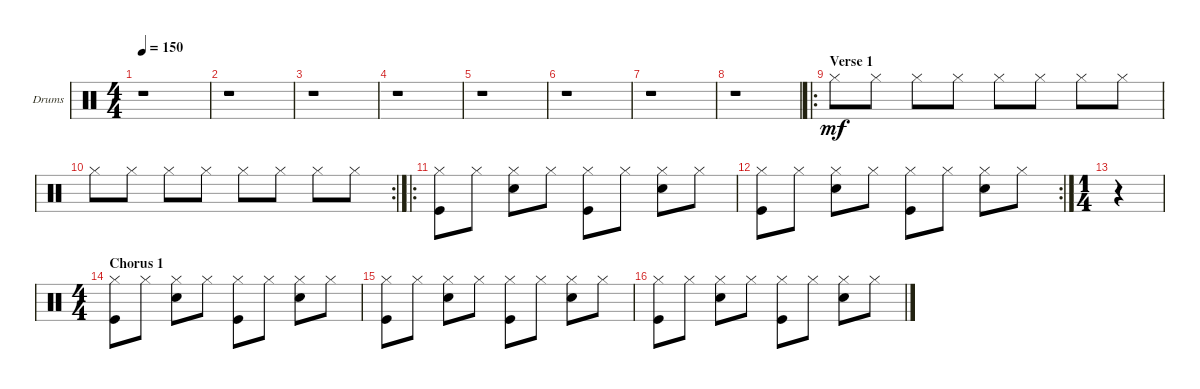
\defaultSystemsLayout 4
\bracketExtendMode groupsimilarinstruments
\firstSystemTrackNameOrientation horizontal
\otherSystemsTrackNameOrientation horizontal
\chordDiagramsInScore
\track ("Drumkit" "Drums") {instrument percussion}
\staff {score}
\articulation defaults
\ts (4 4)
\tempo 150
\clef neutral
\scale
0.474178
\ks c
r.1{dy mf} |
\scale
0.262911 r.1 |
\scale
0.262911 r.1 |
\scale
0.333333 r.1 |
\scale
0.333333 r.1 |
\scale
0.333333 r.1 |
\scale
0.311111 r.1 |
\scale
0.311111 r.1 |
\ro
\section ("" "Verse 1")
\scale
0.377778 "Hi-Hat (closed)".8 "Hi-Hat (closed)".8 "Hi-Hat (closed)".8 "Hi-Hat (closed)".8 "Hi-Hat (closed)".8 "Hi-Hat (closed)".8 "Hi-Hat (closed)".8 "Hi-Hat (closed)".8 |
\rc 2
\scale
0.322917 "Hi-Hat (closed)".8 "Hi-Hat (closed)".8 "Hi-Hat (closed)".8 "Hi-Hat (closed)".8 "Hi-Hat (closed)".8 "Hi-Hat (closed)".8 "Hi-Hat (closed)".8 "Hi-Hat (closed)".8 |
\ro
\scale
0.354167 ("Kick (hit)" "Hi-Hat (closed)").8 "Hi-Hat (closed)".8 ("Snare (hit) 2" "Hi-Hat (closed)").8 "Hi-Hat (closed)".8 ("Kick (hit)" "Hi-Hat (closed)").8 "Hi-Hat (closed)".8 ("Snare (hit) 2" "Hi-Hat (closed)").8 "Hi-Hat (closed)".8 |
\rc 2
\scale
0.322917 ("Kick (hit)" "Hi-Hat (closed)").8 "Hi-Hat (closed)".8 ("Snare (hit) 2" "Hi-Hat (closed)").8 "Hi-Hat (closed)".8 ("Kick (hit)" "Hi-Hat (closed)").8 "Hi-Hat (closed)".8 ("Snare (hit) 2" "Hi-Hat (closed)").8 "Hi-Hat (closed)".8 |
\ts (1 4)
r.4 |
\ts (4 4)
\section ("" "Chorus 1")
("Kick (hit)" "Hi-Hat (closed)").8 "Hi-Hat (closed)".8 ("Snare (hit) 2" "Hi-Hat (closed)").8 "Hi-Hat (closed)".8 ("Kick (hit)" "Hi-Hat (closed)").8 "Hi-Hat (closed)".8 ("Snare (hit) 2" "Hi-Hat (closed)").8 "Hi-Hat (closed)".8 |
("Kick (hit)" "Hi-Hat (closed)").8 "Hi-Hat (closed)".8 ("Snare (hit) 2" "Hi-Hat (closed)").8 "Hi-Hat (closed)".8 ("Kick (hit)" "Hi-Hat (closed)").8 "Hi-Hat (closed)".8 ("Snare (hit) 2" "Hi-Hat (closed)").8 "Hi-Hat (closed)".8 |
("Kick (hit)" "Hi-Hat (closed)").8 "Hi-Hat (closed)".8 ("Snare (hit) 2" "Hi-Hat (closed)").8 "Hi-Hat (closed)".8 ("Kick (hit)" "Hi-Hat (closed)").8 "Hi-Hat (closed)".8 ("Snare (hit) 2" "Hi-Hat (closed)").8 "Hi-Hat (closed)".8
